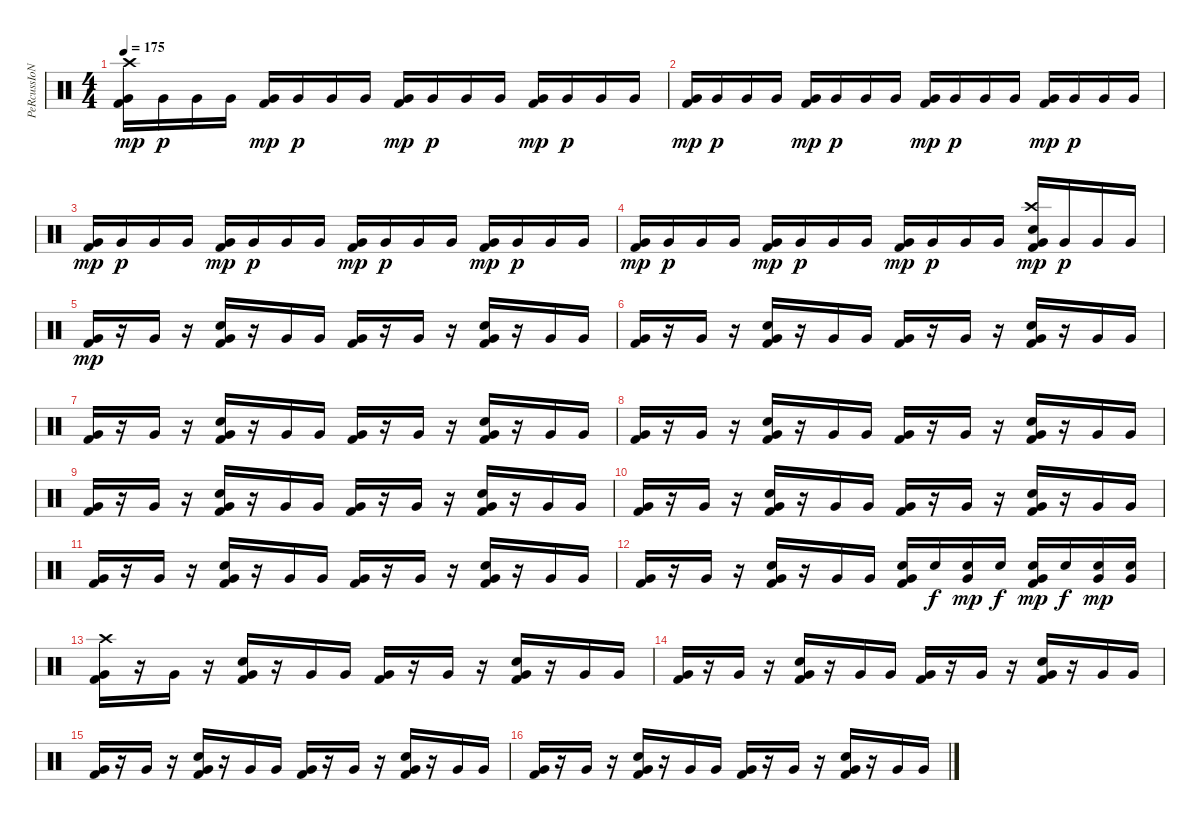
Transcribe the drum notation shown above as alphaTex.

\track ("PeRcussIoNs" "PeRcussIoN") {instrument percussion}
\staff {score}
\articulation defaults
\ts (4 4)
\tempo 175
\clef neutral
\ks c
("Very Low Tom (hit)" "Kick (hit) 2" "Crash high (hit)").16{dy mp} "Very Low Tom (hit)".16{dy p} "Very Low Tom (hit)".16 "Very Low Tom (hit)".16 ("Very Low Tom (hit)" "Kick (hit) 2").16{dy mp} "Very Low Tom (hit)".16{dy p} "Very Low Tom (hit)".16 "Very Low Tom (hit)".16 ("Very Low Tom (hit)" "Kick (hit) 2").16{dy mp} "Very Low Tom (hit)".16{dy p} "Very Low Tom (hit)".16 "Very Low Tom (hit)".16 ("Very Low Tom (hit)" "Kick (hit) 2").16{dy mp} "Very Low Tom (hit)".16{dy p} "Very Low Tom (hit)".16 "Very Low Tom (hit)".16 |
("Very Low Tom (hit)" "Kick (hit) 2").16{dy mp} "Very Low Tom (hit)".16{dy p} "Very Low Tom (hit)".16 "Very Low Tom (hit)".16 ("Very Low Tom (hit)" "Kick (hit) 2").16{dy mp} "Very Low Tom (hit)".16{dy p} "Very Low Tom (hit)".16 "Very Low Tom (hit)".16 ("Very Low Tom (hit)" "Kick (hit) 2").16{dy mp} "Very Low Tom (hit)".16{dy p} "Very Low Tom (hit)".16 "Very Low Tom (hit)".16 ("Very Low Tom (hit)" "Kick (hit) 2").16{dy mp} "Very Low Tom (hit)".16{dy p} "Very Low Tom (hit)".16 "Very Low Tom (hit)".16 |
("Very Low Tom (hit)" "Kick (hit) 2").16{dy mp} "Very Low Tom (hit)".16{dy p} "Very Low Tom (hit)".16 "Very Low Tom (hit)".16 ("Very Low Tom (hit)" "Kick (hit) 2").16{dy mp} "Very Low Tom (hit)".16{dy p} "Very Low Tom (hit)".16 "Very Low Tom (hit)".16 ("Very Low Tom (hit)" "Kick (hit) 2").16{dy mp} "Very Low Tom (hit)".16{dy p} "Very Low Tom (hit)".16 "Very Low Tom (hit)".16 ("Very Low Tom (hit)" "Kick (hit) 2").16{dy mp} "Very Low Tom (hit)".16{dy p} "Very Low Tom (hit)".16 "Very Low Tom (hit)".16 |
("Very Low Tom (hit)" "Kick (hit) 2").16{dy mp} "Very Low Tom (hit)".16{dy p} "Very Low Tom (hit)".16 "Very Low Tom (hit)".16 ("Very Low Tom (hit)" "Kick (hit) 2").16{dy mp} "Very Low Tom (hit)".16{dy p} "Very Low Tom (hit)".16 "Very Low Tom (hit)".16 ("Very Low Tom (hit)" "Kick (hit) 2").16{dy mp} "Very Low Tom (hit)".16{dy p} "Very Low Tom (hit)".16 "Very Low Tom (hit)".16 ("Crash high (hit)" "Electric Snare (hit)" "Very Low Tom (hit)" "Kick (hit) 2").16{dy mp} "Very Low Tom (hit)".16{dy p} "Very Low Tom (hit)".16 "Very Low Tom (hit)".16 |
("Very Low Tom (hit)" "Kick (hit) 2").16{dy mp} r.16 "Very Low Tom (hit)".16 r.16 ("Very Low Tom (hit)" "Electric Snare (hit)" "Kick (hit) 2").16 r.16 "Very Low Tom (hit)".16 "Very Low Tom (hit)".16 ("Very Low Tom (hit)" "Kick (hit) 2").16 r.16 "Very Low Tom (hit)".16 r.16 ("Very Low Tom (hit)" "Electric Snare (hit)" "Kick (hit) 2").16 r.16 "Very Low Tom (hit)".16 "Very Low Tom (hit)".16 |
("Kick (hit) 2" "Very Low Tom (hit)").16 r.16 "Very Low Tom (hit)".16 r.16 ("Electric Snare (hit)" "Kick (hit) 2" "Very Low Tom (hit)").16 r.16 "Very Low Tom (hit)".16 "Very Low Tom (hit)".16 ("Kick (hit) 2" "Very Low Tom (hit)").16 r.16 "Very Low Tom (hit)".16 r.16 ("Electric Snare (hit)" "Kick (hit) 2" "Very Low Tom (hit)").16 r.16 "Very Low Tom (hit)".16 "Very Low Tom (hit)".16 |
("Kick (hit) 2" "Very Low Tom (hit)").16 r.16 "Very Low Tom (hit)".16 r.16 ("Electric Snare (hit)" "Kick (hit) 2" "Very Low Tom (hit)").16 r.16 "Very Low Tom (hit)".16 "Very Low Tom (hit)".16 ("Kick (hit) 2" "Very Low Tom (hit)").16 r.16 "Very Low Tom (hit)".16 r.16 ("Electric Snare (hit)" "Kick (hit) 2" "Very Low Tom (hit)").16 r.16 "Very Low Tom (hit)".16 "Very Low Tom (hit)".16 |
("Kick (hit) 2" "Very Low Tom (hit)").16 r.16 "Very Low Tom (hit)".16 r.16 ("Electric Snare (hit)" "Kick (hit) 2" "Very Low Tom (hit)").16 r.16 "Very Low Tom (hit)".16 "Very Low Tom (hit)".16 ("Kick (hit) 2" "Very Low Tom (hit)").16 r.16 "Very Low Tom (hit)".16 r.16 ("Electric Snare (hit)" "Kick (hit) 2" "Very Low Tom (hit)").16 r.16 "Very Low Tom (hit)".16 "Very Low Tom (hit)".16 |
("Kick (hit) 2" "Very Low Tom (hit)").16 r.16 "Very Low Tom (hit)".16 r.16 ("Electric Snare (hit)" "Kick (hit) 2" "Very Low Tom (hit)").16 r.16 "Very Low Tom (hit)".16 "Very Low Tom (hit)".16 ("Kick (hit) 2" "Very Low Tom (hit)").16 r.16 "Very Low Tom (hit)".16 r.16 ("Electric Snare (hit)" "Kick (hit) 2" "Very Low Tom (hit)").16 r.16 "Very Low Tom (hit)".16 "Very Low Tom (hit)".16 |
("Kick (hit) 2" "Very Low Tom (hit)").16 r.16 "Very Low Tom (hit)".16 r.16 ("Electric Snare (hit)" "Kick (hit) 2" "Very Low Tom (hit)").16 r.16 "Very Low Tom (hit)".16 "Very Low Tom (hit)".16 ("Kick (hit) 2" "Very Low Tom (hit)").16 r.16 "Very Low Tom (hit)".16 r.16 ("Electric Snare (hit)" "Kick (hit) 2" "Very Low Tom (hit)").16 r.16 "Very Low Tom (hit)".16 "Very Low Tom (hit)".16 |
("Kick (hit) 2" "Very Low Tom (hit)").16 r.16 "Very Low Tom (hit)".16 r.16 ("Electric Snare (hit)" "Kick (hit) 2" "Very Low Tom (hit)").16 r.16 "Very Low Tom (hit)".16 "Very Low Tom (hit)".16 ("Kick (hit) 2" "Very Low Tom (hit)").16 r.16 "Very Low Tom (hit)".16 r.16 ("Electric Snare (hit)" "Kick (hit) 2" "Very Low Tom (hit)").16 r.16 "Very Low Tom (hit)".16 "Very Low Tom (hit)".16 |
("Kick (hit) 2" "Very Low Tom (hit)").16 r.16 "Very Low Tom (hit)".16 r.16 ("Electric Snare (hit)" "Kick (hit) 2" "Very Low Tom (hit)").16 r.16 "Very Low Tom (hit)".16 "Very Low Tom (hit)".16 ("Electric Snare (hit)" "Kick (hit) 2" "Very Low Tom (hit)").16 "Electric Snare (hit)".16{dy f} ("Electric Snare (hit)" "Very Low Tom (hit)").16{dy mp} "Electric Snare (hit)".16{dy f} ("Electric Snare (hit)" "Kick (hit) 2" "Very Low Tom (hit)").16{dy mp} "Electric Snare (hit)".16{dy f} ("Electric Snare (hit)" "Very Low Tom (hit)").16{dy mp} ("Electric Snare (hit)" "Very Low Tom (hit)").16 |
("Crash high (hit)" "Kick (hit) 2" "Very Low Tom (hit)").16 r.16 "Very Low Tom (hit)".16 r.16 ("Electric Snare (hit)" "Kick (hit) 2" "Very Low Tom (hit)").16 r.16 "Very Low Tom (hit)".16 "Very Low Tom (hit)".16 ("Kick (hit) 2" "Very Low Tom (hit)").16 r.16 "Very Low Tom (hit)".16 r.16 ("Electric Snare (hit)" "Kick (hit) 2" "Very Low Tom (hit)").16 r.16 "Very Low Tom (hit)".16 "Very Low Tom (hit)".16 |
("Kick (hit) 2" "Very Low Tom (hit)").16 r.16 "Very Low Tom (hit)".16 r.16 ("Electric Snare (hit)" "Kick (hit) 2" "Very Low Tom (hit)").16 r.16 "Very Low Tom (hit)".16 "Very Low Tom (hit)".16 ("Kick (hit) 2" "Very Low Tom (hit)").16 r.16 "Very Low Tom (hit)".16 r.16 ("Electric Snare (hit)" "Kick (hit) 2" "Very Low Tom (hit)").16 r.16 "Very Low Tom (hit)".16 "Very Low Tom (hit)".16 |
("Kick (hit) 2" "Very Low Tom (hit)").16 r.16 "Very Low Tom (hit)".16 r.16 ("Electric Snare (hit)" "Kick (hit) 2" "Very Low Tom (hit)").16 r.16 "Very Low Tom (hit)".16 "Very Low Tom (hit)".16 ("Kick (hit) 2" "Very Low Tom (hit)").16 r.16 "Very Low Tom (hit)".16 r.16 ("Electric Snare (hit)" "Kick (hit) 2" "Very Low Tom (hit)").16 r.16 "Very Low Tom (hit)".16 "Very Low Tom (hit)".16 |
("Kick (hit) 2" "Very Low Tom (hit)").16 r.16 "Very Low Tom (hit)".16 r.16 ("Electric Snare (hit)" "Kick (hit) 2" "Very Low Tom (hit)").16 r.16 "Very Low Tom (hit)".16 "Very Low Tom (hit)".16 ("Kick (hit) 2" "Very Low Tom (hit)").16 r.16 "Very Low Tom (hit)".16 r.16 ("Electric Snare (hit)" "Kick (hit) 2" "Very Low Tom (hit)").16 r.16 "Very Low Tom (hit)".16 "Very Low Tom (hit)".16
